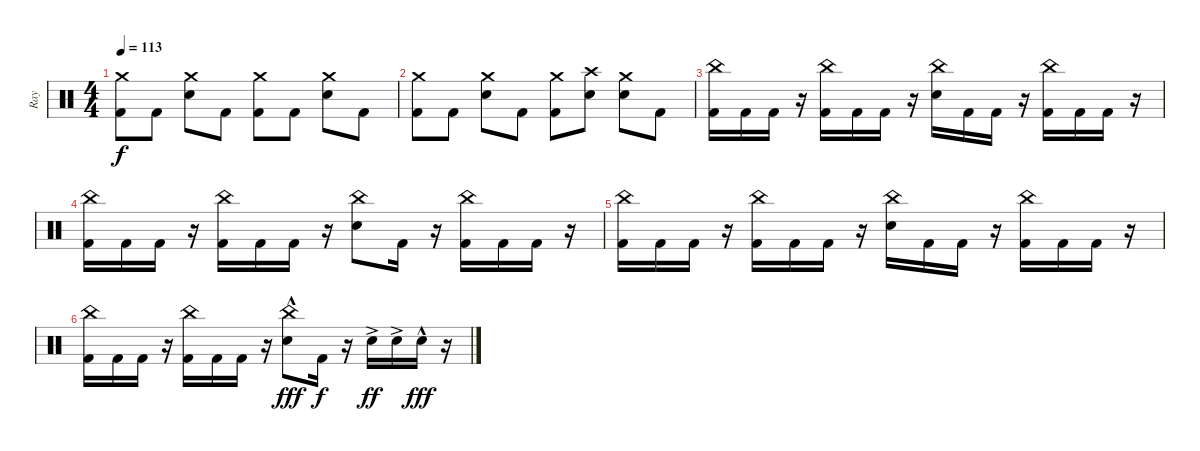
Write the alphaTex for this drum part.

\track ("Ray" "Ray") {instrument percussion}
\staff {score}
\articulation defaults
\ts (4 4)
\tempo 113
\clef neutral
\ks c
("Crash medium (hit)" "Kick (hit) 2").8{dy f} "Kick (hit) 2".8 ("Crash medium (hit)" "Electric Snare (hit)").8 "Kick (hit) 2".8 ("Crash medium (hit)" "Kick (hit) 2").8 "Kick (hit) 2".8 ("Crash medium (hit)" "Electric Snare (hit)").8 "Kick (hit) 2".8 |
("Crash medium (hit)" "Kick (hit) 2").8 "Kick (hit) 2".8 ("Crash medium (hit)" "Electric Snare (hit)").8 "Kick (hit) 2".8 ("Crash medium (hit)" "Kick (hit) 2").8 ("Crash high (hit)" "Electric Snare (hit)").8 ("Crash medium (hit)" "Electric Snare (hit)").8 "Kick (hit) 2".8 |
("China (hit)" "Kick (hit) 2").16 "Kick (hit) 2".16 "Kick (hit) 2".16 r.16 ("China (hit)" "Kick (hit) 2").16 "Kick (hit) 2".16 "Kick (hit) 2".16 r.16 ("China (hit)" "Electric Snare (hit)").16 "Kick (hit) 2".16 "Kick (hit) 2".16 r.16 ("China (hit)" "Kick (hit) 2").16 "Kick (hit) 2".16 "Kick (hit) 2".16 r.16 |
("China (hit)" "Kick (hit) 2").16 "Kick (hit) 2".16 "Kick (hit) 2".16 r.16 ("China (hit)" "Kick (hit) 2").16 "Kick (hit) 2".16 "Kick (hit) 2".16 r.16 ("China (hit)" "Electric Snare (hit)").8 "Kick (hit) 2".16 r.16 ("China (hit)" "Kick (hit) 2").16 "Kick (hit) 2".16 "Kick (hit) 2".16 r.16 |
("China (hit)" "Kick (hit) 2").16 "Kick (hit) 2".16 "Kick (hit) 2".16 r.16 ("China (hit)" "Kick (hit) 2").16 "Kick (hit) 2".16 "Kick (hit) 2".16 r.16 ("China (hit)" "Electric Snare (hit)").16 "Kick (hit) 2".16 "Kick (hit) 2".16 r.16 ("China (hit)" "Kick (hit) 2").16 "Kick (hit) 2".16 "Kick (hit) 2".16 r.16 |
("China (hit)" "Kick (hit) 2").16 "Kick (hit) 2".16 "Kick (hit) 2".16 r.16 ("China (hit)" "Kick (hit) 2").16 "Kick (hit) 2".16 "Kick (hit) 2".16 r.16 ("China (hit)"{hac} "Electric Snare (hit)").8{dy fff} "Kick (hit) 2".16{dy f} r.16 "Electric Snare (hit)"{ac}.16{dy ff} "Electric Snare (hit)"{ac}.16 "Electric Snare (hit)"{hac}.16{dy fff} r.16
